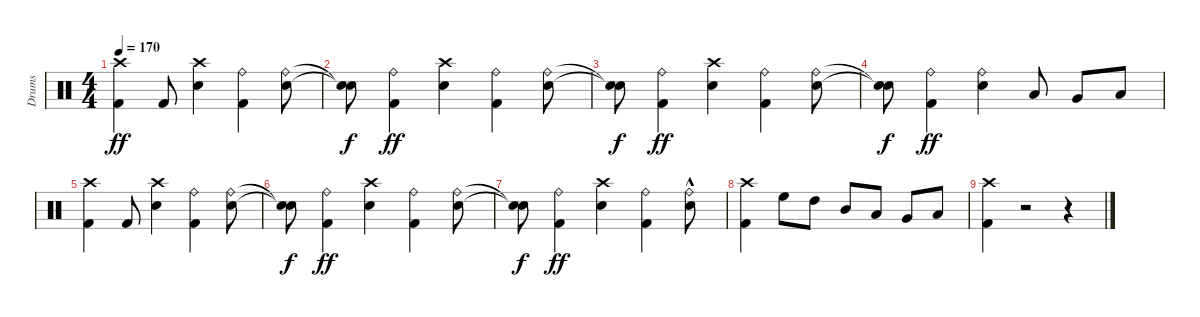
\track ("Drums" "Drums") {instrument percussion}
\staff {score}
\articulation defaults
\ts (4 4)
\tempo 170
\clef neutral
\ks c
("Kick (hit) 2" "Crash high (hit)").4{dy ff} "Kick (hit) 2".8 ("Snare (hit) 2" "Crash high (hit)").4 ("Kick (hit) 2" "Ride (bell)").4 ("Snare (hit) 2" "Ride (bell)").8 |
("Snare (hit)"{t} "Snare (hit)"{t}).8{dy f} ("Kick (hit) 2" "Ride (bell)").4{dy ff} ("Snare (hit) 2" "Crash high (hit)").4 ("Kick (hit) 2" "Ride (bell)").4 ("Snare (hit) 2" "Ride (bell)").8 |
("Snare (hit)"{t} "Snare (hit)"{t}).8{dy f} ("Kick (hit) 2" "Ride (bell)").4{dy ff} ("Snare (hit) 2" "Crash high (hit)").4 ("Kick (hit) 2" "Ride (bell)").4 ("Snare (hit) 2" "Ride (bell)").8 |
("Snare (hit)"{t} "Snare (hit)"{t}).8{dy f} ("Kick (hit) 2" "Ride (bell)").4{dy ff} ("Snare (hit) 2" "Ride (bell)").4 "Low Tom (hit)".8 "Very Low Tom (hit)".8 "Low Floor Tom (hit)".8 |
("Kick (hit) 2" "Crash high (hit)").4 "Kick (hit) 2".8 ("Snare (hit) 2" "Crash high (hit)").4 ("Kick (hit) 2" "Ride (bell)").4 ("Snare (hit) 2" "Ride (bell)").8 |
("Snare (hit)"{t} "Snare (hit)"{t}).8{dy f} ("Kick (hit) 2" "Ride (bell)").4{dy ff} ("Snare (hit) 2" "Crash high (hit)").4 ("Kick (hit) 2" "Ride (bell)").4 ("Snare (hit) 2" "Ride (bell)").8 |
("Snare (hit)"{t} "Snare (hit)"{t}).8{dy f} ("Kick (hit) 2" "Ride (bell)").4{dy ff} ("Snare (hit) 2" "Crash high (hit)").4 ("Kick (hit) 2" "Ride (bell)").4 ("Snare (hit) 2" "Ride (bell)"{hac}).8 |
("Kick (hit) 2" "Crash high (hit)").4 "High Floor Tom (hit)".8 "High Tom (hit)".8 "Mid Tom (hit)".8 "Low Tom (hit)".8 "Very Low Tom (hit)".8 "Low Floor Tom (hit)".8 |
("Kick (hit) 2" "Crash high (hit)").4 r.2 r.4
